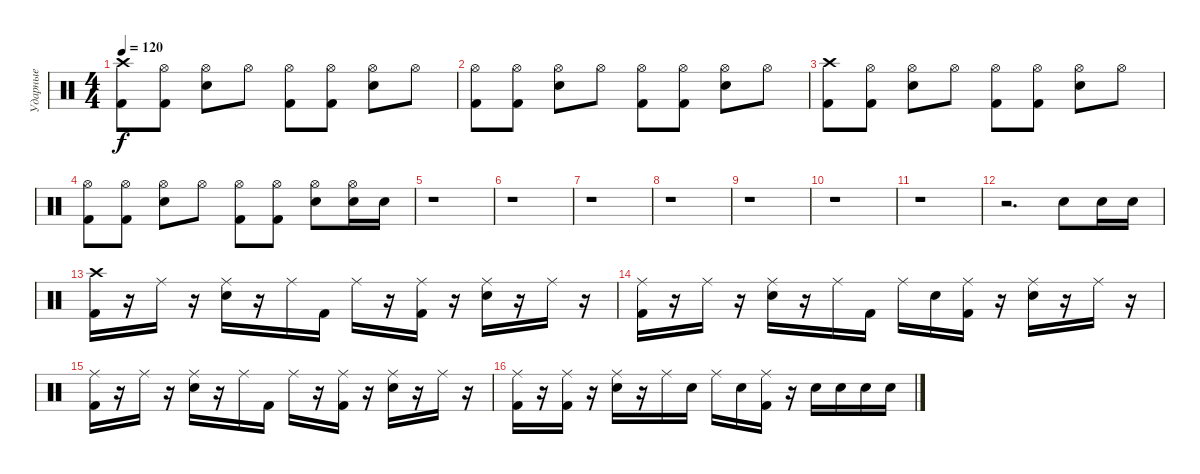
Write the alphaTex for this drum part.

\track ("Ударные" "Ударные") {instrument percussion}
\staff {score}
\articulation defaults
\ts (4 4)
\tempo 120
\clef neutral
\ks c
("Crash high (hit)" "Kick (hit) 2").8{dy f} ("Hi-Hat (open)" "Kick (hit) 2").8 ("Hi-Hat (open)" "Electric Snare (hit)").8 "Hi-Hat (open)".8 ("Hi-Hat (open)" "Kick (hit) 2").8 ("Hi-Hat (open)" "Kick (hit) 2").8 ("Hi-Hat (open)" "Electric Snare (hit)").8 "Hi-Hat (open)".8 |
("Hi-Hat (open)" "Kick (hit) 2").8 ("Hi-Hat (open)" "Kick (hit) 2").8 ("Hi-Hat (open)" "Electric Snare (hit)").8 "Hi-Hat (open)".8 ("Hi-Hat (open)" "Kick (hit) 2").8 ("Hi-Hat (open)" "Kick (hit) 2").8 ("Hi-Hat (open)" "Electric Snare (hit)").8 "Hi-Hat (open)".8 |
("Crash high (hit)" "Kick (hit) 2").8 ("Hi-Hat (open)" "Kick (hit) 2").8 ("Hi-Hat (open)" "Electric Snare (hit)").8 "Hi-Hat (open)".8 ("Hi-Hat (open)" "Kick (hit) 2").8 ("Hi-Hat (open)" "Kick (hit) 2").8 ("Hi-Hat (open)" "Electric Snare (hit)").8 "Hi-Hat (open)".8 |
("Hi-Hat (open)" "Kick (hit) 2").8 ("Hi-Hat (open)" "Kick (hit) 2").8 ("Hi-Hat (open)" "Electric Snare (hit)").8 "Hi-Hat (open)".8 ("Hi-Hat (open)" "Kick (hit) 2").8 ("Hi-Hat (open)" "Kick (hit) 2").8 ("Hi-Hat (open)" "Electric Snare (hit)").8 ("Hi-Hat (open)" "Electric Snare (hit)").16 "Electric Snare (hit)".16 |
r.1 |
r.1 |
r.1 |
r.1 |
r.1 |
r.1 |
r.1 |
r.2{d} "Electric Snare (hit)".8 "Electric Snare (hit)".16 "Electric Snare (hit)".16 |
("Crash high (hit)" "Kick (hit) 2").16 r.16 "Ride (middle)".16 r.16 ("Ride (middle)" "Electric Snare (hit)").16 r.16 "Ride (middle)".16 "Kick (hit) 2".16 "Ride (middle)".16 r.16 ("Ride (middle)" "Kick (hit) 2").16 r.16 ("Ride (middle)" "Electric Snare (hit)").16 r.16 "Ride (middle)".16 r.16 |
("Ride (middle)" "Kick (hit) 2").16 r.16 "Ride (middle)".16 r.16 ("Ride (middle)" "Electric Snare (hit)").16 r.16 "Ride (middle)".16 "Kick (hit) 2".16 "Ride (middle)".16 "Electric Snare (hit)".16 ("Ride (middle)" "Kick (hit) 2").16 r.16 ("Ride (middle)" "Electric Snare (hit)").16 r.16 "Ride (middle)".16 r.16 |
("Ride (middle)" "Kick (hit) 2").16 r.16 "Ride (middle)".16 r.16 ("Ride (middle)" "Electric Snare (hit)").16 r.16 "Ride (middle)".16 "Kick (hit) 2".16 "Ride (middle)".16 r.16 ("Ride (middle)" "Kick (hit) 2").16 r.16 ("Ride (middle)" "Electric Snare (hit)").16 r.16 "Ride (middle)".16 r.16 |
("Ride (middle)" "Kick (hit) 2").16 r.16 ("Ride (middle)" "Kick (hit) 2").16 r.16 ("Ride (middle)" "Electric Snare (hit)").16 r.16 "Ride (middle)".16 "Electric Snare (hit)".16 "Ride (middle)".16 "Electric Snare (hit)".16 ("Ride (middle)" "Kick (hit) 2").16 r.16 "Electric Snare (hit)".16 "Electric Snare (hit)".16 "Electric Snare (hit)".16 "Electric Snare (hit)".16
